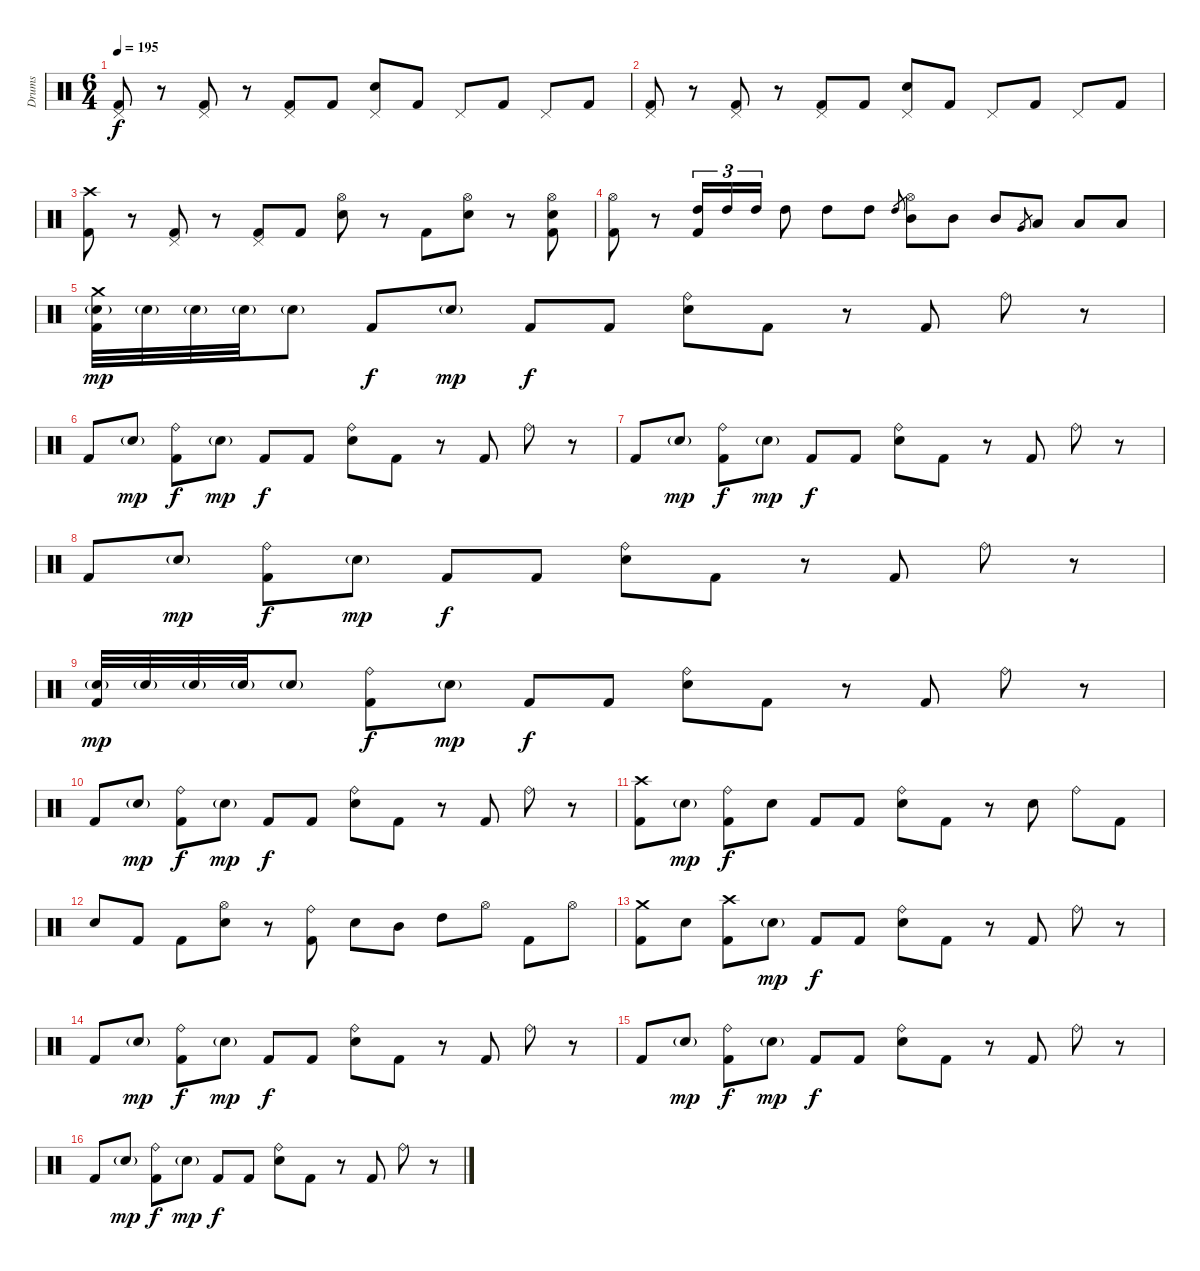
\track ("Drums" "Drums") {instrument percussion}
\staff {score}
\articulation defaults
\ts (6 4)
\tempo 195
\clef neutral
\ks c
("Pedal Hi-Hat (hit)" "Kick (hit) 2").8{dy f} r.8 ("Pedal Hi-Hat (hit)" "Kick (hit) 2").8 r.8 ("Pedal Hi-Hat (hit)" "Kick (hit) 2").8 "Kick (hit) 2".8 ("Pedal Hi-Hat (hit)" "Electric Snare (hit)").8 "Kick (hit) 2".8 "Pedal Hi-Hat (hit)".8 "Kick (hit) 2".8 "Pedal Hi-Hat (hit)".8 "Kick (hit) 2".8 |
("Pedal Hi-Hat (hit)" "Kick (hit) 2").8 r.8 ("Pedal Hi-Hat (hit)" "Kick (hit) 2").8 r.8 ("Pedal Hi-Hat (hit)" "Kick (hit) 2").8 "Kick (hit) 2".8 ("Pedal Hi-Hat (hit)" "Electric Snare (hit)").8 "Kick (hit) 2".8 "Pedal Hi-Hat (hit)".8 "Kick (hit) 2".8 "Pedal Hi-Hat (hit)".8 "Kick (hit) 2".8 |
("Crash high (hit)" "Kick (hit) 2").8 r.8 ("Pedal Hi-Hat (hit)" "Kick (hit) 2").8 r.8 ("Pedal Hi-Hat (hit)" "Kick (hit) 2").8 "Kick (hit) 2".8 ("Hi-Hat (open)" "Electric Snare (hit)").8 r.8 "Kick (hit) 2".8 ("Hi-Hat (open)" "Electric Snare (hit)").8 r.8 ("Hi-Hat (open)" "Electric Snare (hit)" "Kick (hit) 2").8 |
("Hi-Hat (open)" "Kick (hit) 2").8 r.8 ("High Tom (hit)" "Kick (hit) 2").16{tu (3 2)} "High Tom (hit)".16{tu (3 2)} "High Tom (hit)".16{tu (3 2)} "High Tom (hit)".8 "High Tom (hit)".8 "High Tom (hit)".8 "High Tom (hit)".8{gr} ("Hi-Hat (open)" "Mid Tom (hit)").8 "Mid Tom (hit)".8 "Mid Tom (hit)".8 "Very Low Tom (hit)".8{gr} "Low Tom (hit)".8 "Low Tom (hit)".8 "Low Tom (hit)".8 |
("Crash medium (hit)" "Electric Snare (hit)"{g} "Kick (hit) 2").32{dy mp} "Electric Snare (hit)"{g}.32 "Electric Snare (hit)"{g}.32 "Electric Snare (hit)"{g}.32 "Electric Snare (hit)"{g}.8 "Kick (hit) 2".8{dy f} "Electric Snare (hit)"{g}.8{dy mp} "Kick (hit) 2".8{dy f} "Kick (hit) 2".8 ("Ride (bell)" "Electric Snare (hit)").8 "Kick (hit) 2".8 r.8 "Kick (hit) 2".8 "Ride (bell)".8 r.8 |
"Kick (hit) 2".8 "Electric Snare (hit)"{g}.8{dy mp} ("Ride (bell)" "Kick (hit) 2").8{dy f} "Electric Snare (hit)"{g}.8{dy mp} "Kick (hit) 2".8{dy f} "Kick (hit) 2".8 ("Ride (bell)" "Electric Snare (hit)").8 "Kick (hit) 2".8 r.8 "Kick (hit) 2".8 "Ride (bell)".8 r.8 |
"Kick (hit) 2".8 "Electric Snare (hit)"{g}.8{dy mp} ("Ride (bell)" "Kick (hit) 2").8{dy f} "Electric Snare (hit)"{g}.8{dy mp} "Kick (hit) 2".8{dy f} "Kick (hit) 2".8 ("Ride (bell)" "Electric Snare (hit)").8 "Kick (hit) 2".8 r.8 "Kick (hit) 2".8 "Ride (bell)".8 r.8 |
"Kick (hit) 2".8 "Electric Snare (hit)"{g}.8{dy mp} ("Ride (bell)" "Kick (hit) 2").8{dy f} "Electric Snare (hit)"{g}.8{dy mp} "Kick (hit) 2".8{dy f} "Kick (hit) 2".8 ("Ride (bell)" "Electric Snare (hit)").8 "Kick (hit) 2".8 r.8 "Kick (hit) 2".8 "Ride (bell)".8 r.8 |
("Electric Snare (hit)"{g} "Kick (hit) 2").32{dy mp} "Electric Snare (hit)"{g}.32 "Electric Snare (hit)"{g}.32 "Electric Snare (hit)"{g}.32 "Electric Snare (hit)"{g}.8 ("Ride (bell)" "Kick (hit) 2").8{dy f} "Electric Snare (hit)"{g}.8{dy mp} "Kick (hit) 2".8{dy f} "Kick (hit) 2".8 ("Ride (bell)" "Electric Snare (hit)").8 "Kick (hit) 2".8 r.8 "Kick (hit) 2".8 "Ride (bell)".8 r.8 |
"Kick (hit) 2".8 "Electric Snare (hit)"{g}.8{dy mp} ("Ride (bell)" "Kick (hit) 2").8{dy f} "Electric Snare (hit)"{g}.8{dy mp} "Kick (hit) 2".8{dy f} "Kick (hit) 2".8 ("Ride (bell)" "Electric Snare (hit)").8 "Kick (hit) 2".8 r.8 "Kick (hit) 2".8 "Ride (bell)".8 r.8 |
("Crash high (hit)" "Kick (hit) 2").8 "Electric Snare (hit)"{g}.8{dy mp} ("Ride (bell)" "Kick (hit) 2").8{dy f} "Electric Snare (hit)".8 "Kick (hit) 2".8 "Kick (hit) 2".8 ("Ride (bell)" "Electric Snare (hit)").8 "Kick (hit) 2".8 r.8 "Electric Snare (hit)".8 "Ride (bell)".8 "Kick (hit) 2".8 |
"Electric Snare (hit)".8 "Kick (hit) 2".8 "Kick (hit) 2".8 ("Hi-Hat (open)" "Electric Snare (hit)").8 r.8 ("Ride (bell)" "Kick (hit) 2").8 "Electric Snare (hit)".8 "Mid Tom (hit)".8 "High Tom (hit)".8 "Hi-Hat (open)".8 "Kick (hit) 2".8 "Hi-Hat (open)".8 |
("Crash medium (hit)" "Kick (hit) 2").8 "Electric Snare (hit)".8 ("Crash high (hit)" "Kick (hit) 2").8 "Electric Snare (hit)"{g}.8{dy mp} "Kick (hit) 2".8{dy f} "Kick (hit) 2".8 ("Ride (bell)" "Electric Snare (hit)").8 "Kick (hit) 2".8 r.8 "Kick (hit) 2".8 "Ride (bell)".8 r.8 |
"Kick (hit) 2".8 "Electric Snare (hit)"{g}.8{dy mp} ("Ride (bell)" "Kick (hit) 2").8{dy f} "Electric Snare (hit)"{g}.8{dy mp} "Kick (hit) 2".8{dy f} "Kick (hit) 2".8 ("Ride (bell)" "Electric Snare (hit)").8 "Kick (hit) 2".8 r.8 "Kick (hit) 2".8 "Ride (bell)".8 r.8 |
"Kick (hit) 2".8 "Electric Snare (hit)"{g}.8{dy mp} ("Ride (bell)" "Kick (hit) 2").8{dy f} "Electric Snare (hit)"{g}.8{dy mp} "Kick (hit) 2".8{dy f} "Kick (hit) 2".8 ("Ride (bell)" "Electric Snare (hit)").8 "Kick (hit) 2".8 r.8 "Kick (hit) 2".8 "Ride (bell)".8 r.8 |
"Kick (hit) 2".8 "Electric Snare (hit)"{g}.8{dy mp} ("Ride (bell)" "Kick (hit) 2").8{dy f} "Electric Snare (hit)"{g}.8{dy mp} "Kick (hit) 2".8{dy f} "Kick (hit) 2".8 ("Ride (bell)" "Electric Snare (hit)").8 "Kick (hit) 2".8 r.8 "Kick (hit) 2".8 "Ride (bell)".8 r.8
